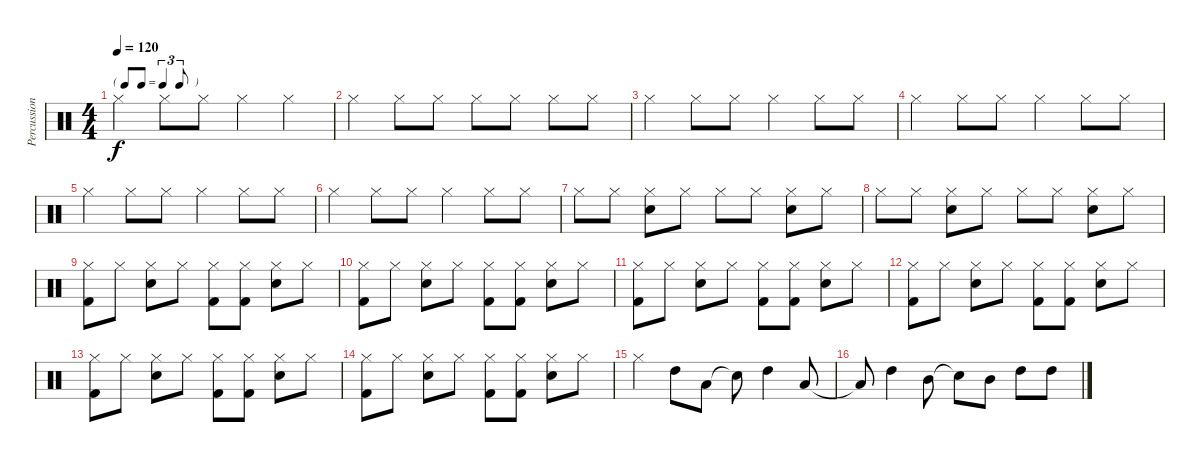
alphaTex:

\track ("Percussion" "Percussion") {instrument percussion}
\staff {score}
\articulation defaults
\ts (4 4)
\tf triplet8th
\tempo 120
\clef neutral
\ks c "Hi-Hat (closed)".4{dy f} "Hi-Hat (closed)".8 "Hi-Hat (closed)".8 "Hi-Hat (closed)".4 "Hi-Hat (closed)".4
|
"Hi-Hat (closed)".4 "Hi-Hat (closed)".8 "Hi-Hat (closed)".8 "Hi-Hat (closed)".8 "Hi-Hat (closed)".8 "Hi-Hat (closed)".8 "Hi-Hat (closed)".8 |
"Hi-Hat (closed)".4 "Hi-Hat (closed)".8 "Hi-Hat (closed)".8 "Hi-Hat (closed)".4 "Hi-Hat (closed)".8 "Hi-Hat (closed)".8 |
"Hi-Hat (closed)".4 "Hi-Hat (closed)".8 "Hi-Hat (closed)".8 "Hi-Hat (closed)".4 "Hi-Hat (closed)".8 "Hi-Hat (closed)".8 |
"Hi-Hat (closed)".4 "Hi-Hat (closed)".8 "Hi-Hat (closed)".8 "Hi-Hat (closed)".4 "Hi-Hat (closed)".8 "Hi-Hat (closed)".8 |
"Hi-Hat (closed)".4 "Hi-Hat (closed)".8 "Hi-Hat (closed)".8 "Hi-Hat (closed)".4 "Hi-Hat (closed)".8 "Hi-Hat (closed)".8 |
"Hi-Hat (closed)".8 "Hi-Hat (closed)".8 ("Hi-Hat (closed)" "Snare (hit) 2").8 "Hi-Hat (closed)".8 "Hi-Hat (closed)".8 "Hi-Hat (closed)".8 ("Hi-Hat (closed)" "Snare (hit) 2").8 "Hi-Hat (closed)".8 |
"Hi-Hat (closed)".8 "Hi-Hat (closed)".8 ("Hi-Hat (closed)" "Snare (hit) 2").8 "Hi-Hat (closed)".8 "Hi-Hat (closed)".8 "Hi-Hat (closed)".8 ("Hi-Hat (closed)" "Snare (hit) 2").8 "Hi-Hat (closed)".8 |
("Hi-Hat (closed)" "Kick (hit) 2").8 "Hi-Hat (closed)".8 ("Hi-Hat (closed)" "Snare (hit) 2").8 "Hi-Hat (closed)".8 ("Hi-Hat (closed)" "Kick (hit) 2").8 ("Hi-Hat (closed)" "Kick (hit) 2").8 ("Hi-Hat (closed)" "Snare (hit) 2").8 "Hi-Hat (closed)".8 |
("Hi-Hat (closed)" "Kick (hit) 2").8 "Hi-Hat (closed)".8 ("Hi-Hat (closed)" "Snare (hit) 2").8 "Hi-Hat (closed)".8 ("Hi-Hat (closed)" "Kick (hit) 2").8 ("Hi-Hat (closed)" "Kick (hit) 2").8 ("Hi-Hat (closed)" "Snare (hit) 2").8 "Hi-Hat (closed)".8 |
("Hi-Hat (closed)" "Kick (hit) 2").8 "Hi-Hat (closed)".8 ("Hi-Hat (closed)" "Snare (hit) 2").8 "Hi-Hat (closed)".8 ("Hi-Hat (closed)" "Kick (hit) 2").8 ("Hi-Hat (closed)" "Kick (hit) 2").8 ("Hi-Hat (closed)" "Snare (hit) 2").8 "Hi-Hat (closed)".8 |
("Hi-Hat (closed)" "Kick (hit) 2").8 "Hi-Hat (closed)".8 ("Hi-Hat (closed)" "Snare (hit) 2").8 "Hi-Hat (closed)".8 ("Hi-Hat (closed)" "Kick (hit) 2").8 ("Hi-Hat (closed)" "Kick (hit) 2").8 ("Hi-Hat (closed)" "Snare (hit) 2").8 "Hi-Hat (closed)".8 |
("Hi-Hat (closed)" "Kick (hit) 2").8 "Hi-Hat (closed)".8 ("Hi-Hat (closed)" "Snare (hit) 2").8 "Hi-Hat (closed)".8 ("Hi-Hat (closed)" "Kick (hit) 2").8 ("Hi-Hat (closed)" "Kick (hit) 2").8 ("Hi-Hat (closed)" "Snare (hit) 2").8 "Hi-Hat (closed)".8 |
("Hi-Hat (closed)" "Kick (hit) 2").8 "Hi-Hat (closed)".8 ("Hi-Hat (closed)" "Snare (hit) 2").8 "Hi-Hat (closed)".8 ("Hi-Hat (closed)" "Kick (hit) 2").8 ("Hi-Hat (closed)" "Kick (hit) 2").8 ("Hi-Hat (closed)" "Snare (hit) 2").8 "Hi-Hat (closed)".8 |
"Hi-Hat (closed)".4 "High Tom (hit)".8 "Low Tom (hit)".8 "Snare (hit)"{t}.8 "High Tom (hit)".4 "Low Tom (hit)".8 |
"Low Tom (hit)"{t}.8 "High Tom (hit)".4 "Mid Tom (hit)".8 "Snare (hit)"{t}.8 "Mid Tom (hit)".8 "High Tom (hit)".8 "High Tom (hit)".8
